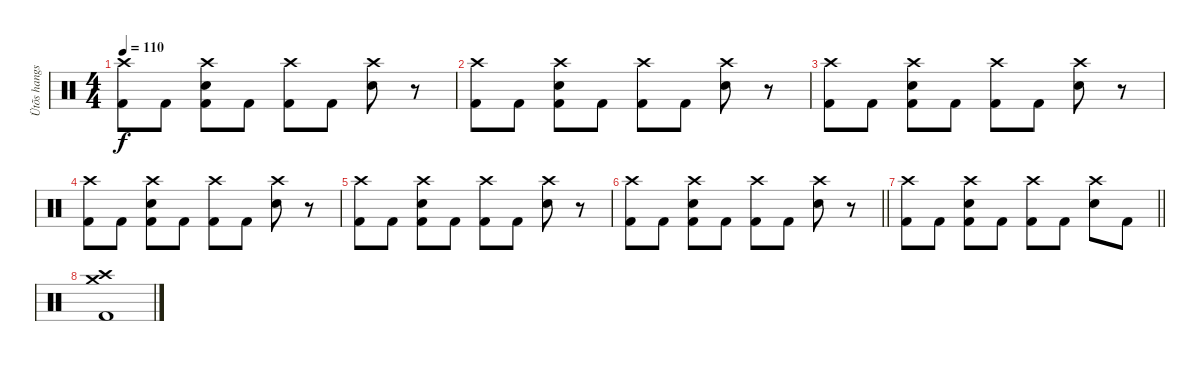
\track ("Ütõs hangszer" "Ütõs hangs") {instrument percussion}
\staff {score}
\articulation defaults
\ts (4 4)
\tempo 110
\clef neutral
\ks c
("Crash high (hit)" "Kick (hit) 2").8{dy f} "Kick (hit) 2".8 ("Crash high (hit)" "Electric Snare (hit)" "Kick (hit) 2").8 "Kick (hit) 2".8 ("Crash high (hit)" "Kick (hit) 2").8 "Kick (hit) 2".8 ("Crash high (hit)" "Electric Snare (hit)").8 r.8 |
("Crash high (hit)" "Kick (hit) 2").8 "Kick (hit) 2".8 ("Crash high (hit)" "Electric Snare (hit)" "Kick (hit) 2").8 "Kick (hit) 2".8 ("Crash high (hit)" "Kick (hit) 2").8 "Kick (hit) 2".8 ("Crash high (hit)" "Electric Snare (hit)").8 r.8 |
("Crash high (hit)" "Kick (hit) 2").8 "Kick (hit) 2".8 ("Crash high (hit)" "Electric Snare (hit)" "Kick (hit) 2").8 "Kick (hit) 2".8 ("Crash high (hit)" "Kick (hit) 2").8 "Kick (hit) 2".8 ("Crash high (hit)" "Electric Snare (hit)").8 r.8 |
("Crash high (hit)" "Kick (hit) 2").8 "Kick (hit) 2".8 ("Crash high (hit)" "Electric Snare (hit)" "Kick (hit) 2").8 "Kick (hit) 2".8 ("Crash high (hit)" "Kick (hit) 2").8 "Kick (hit) 2".8 ("Crash high (hit)" "Electric Snare (hit)").8 r.8 |
("Crash high (hit)" "Kick (hit) 2").8 "Kick (hit) 2".8 ("Crash high (hit)" "Electric Snare (hit)" "Kick (hit) 2").8 "Kick (hit) 2".8 ("Crash high (hit)" "Kick (hit) 2").8 "Kick (hit) 2".8 ("Crash high (hit)" "Electric Snare (hit)").8 r.8 |
\barLineRight lightlight
("Crash high (hit)" "Kick (hit) 2").8 "Kick (hit) 2".8 ("Crash high (hit)" "Electric Snare (hit)" "Kick (hit) 2").8 "Kick (hit) 2".8 ("Crash high (hit)" "Kick (hit) 2").8 "Kick (hit) 2".8 ("Crash high (hit)" "Electric Snare (hit)").8 r.8 |
\barLineRight lightlight
("Crash high (hit)" "Kick (hit) 2").8 "Kick (hit) 2".8 ("Crash high (hit)" "Electric Snare (hit)" "Kick (hit) 2").8 "Kick (hit) 2".8 ("Crash high (hit)" "Kick (hit) 2").8 "Kick (hit) 2".8 ("Crash high (hit)" "Electric Snare (hit)").8 "Kick (hit) 2".8 |
("Crash high (hit)" "Crash medium (hit)" "Kick (hit) 2").1
